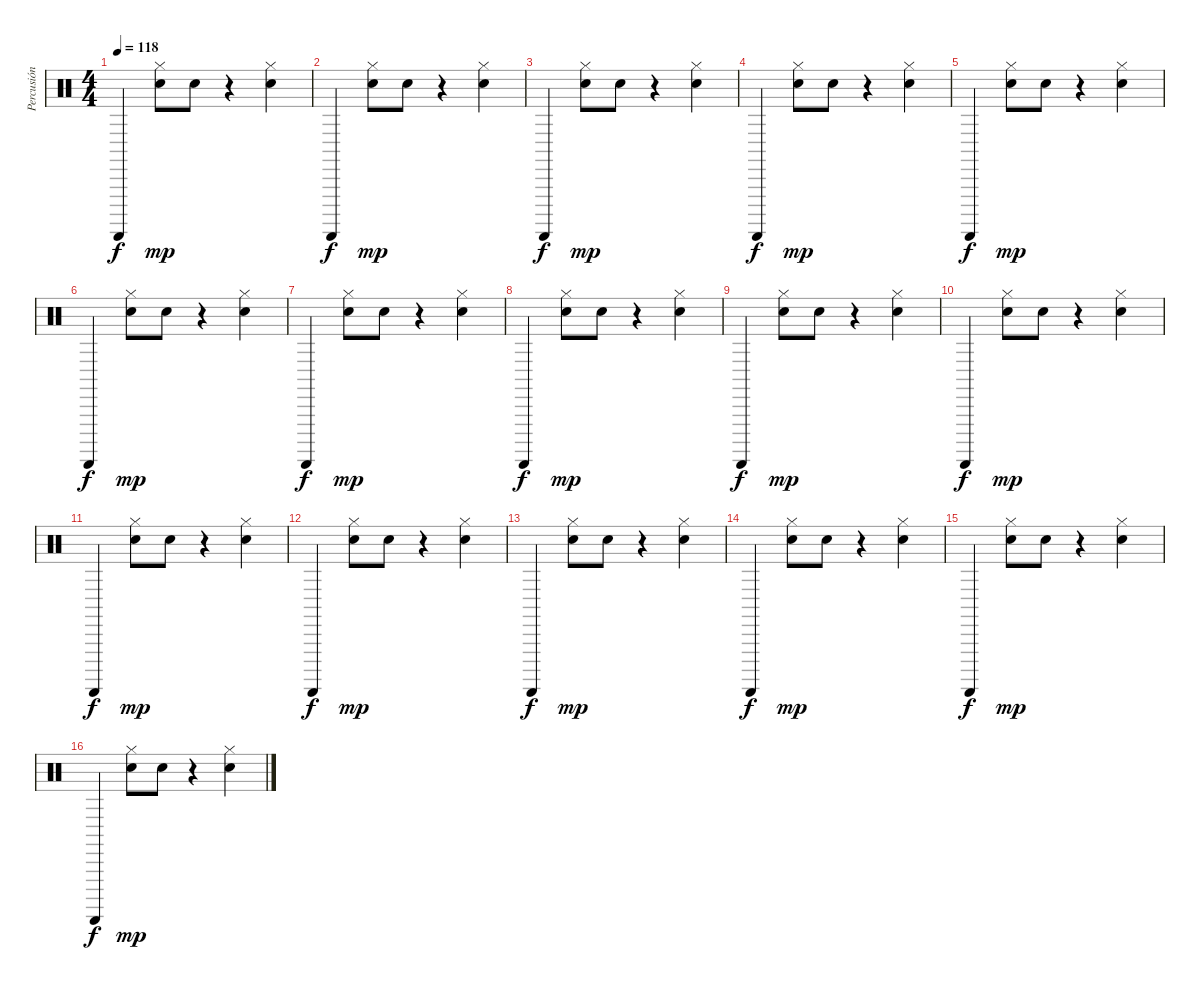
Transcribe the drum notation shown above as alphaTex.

\track ("Percusión" "Percusión") {instrument percussion}
\staff {score}
\articulation defaults
\ts (4 4)
\tempo 118
\clef neutral
\ks c "Guiro (scrap-return)".4{dy f}
("Snare (hit) 2" "Hi-Hat (closed)").8{dy mp} "Snare (hit) 2".8 r.4 ("Snare (hit) 2" "Hi-Hat (closed)").4 |
"Guiro (scrap-return)".4{dy f} ("Snare (hit) 2" "Hi-Hat (closed)").8{dy mp} "Snare (hit) 2".8 r.4 ("Snare (hit) 2" "Hi-Hat (closed)").4 |
"Guiro (scrap-return)".4{dy f} ("Snare (hit) 2" "Hi-Hat (closed)").8{dy mp} "Snare (hit) 2".8 r.4 ("Snare (hit) 2" "Hi-Hat (closed)").4 |
"Guiro (scrap-return)".4{dy f} ("Snare (hit) 2" "Hi-Hat (closed)").8{dy mp} "Snare (hit) 2".8 r.4 ("Snare (hit) 2" "Hi-Hat (closed)").4 |
"Guiro (scrap-return)".4{dy f} ("Snare (hit) 2" "Hi-Hat (closed)").8{dy mp} "Snare (hit) 2".8 r.4 ("Snare (hit) 2" "Hi-Hat (closed)").4 |
"Guiro (scrap-return)".4{dy f} ("Snare (hit) 2" "Hi-Hat (closed)").8{dy mp} "Snare (hit) 2".8 r.4 ("Snare (hit) 2" "Hi-Hat (closed)").4 |
"Guiro (scrap-return)".4{dy f} ("Snare (hit) 2" "Hi-Hat (closed)").8{dy mp} "Snare (hit) 2".8 r.4 ("Snare (hit) 2" "Hi-Hat (closed)").4 |
"Guiro (scrap-return)".4{dy f} ("Snare (hit) 2" "Hi-Hat (closed)").8{dy mp} "Snare (hit) 2".8 r.4 ("Snare (hit) 2" "Hi-Hat (closed)").4 |
"Guiro (scrap-return)".4{dy f} ("Snare (hit) 2" "Hi-Hat (closed)").8{dy mp} "Snare (hit) 2".8 r.4 ("Snare (hit) 2" "Hi-Hat (closed)").4 |
"Guiro (scrap-return)".4{dy f} ("Snare (hit) 2" "Hi-Hat (closed)").8{dy mp} "Snare (hit) 2".8 r.4 ("Snare (hit) 2" "Hi-Hat (closed)").4 |
"Guiro (scrap-return)".4{dy f} ("Snare (hit) 2" "Hi-Hat (closed)").8{dy mp} "Snare (hit) 2".8 r.4 ("Snare (hit) 2" "Hi-Hat (closed)").4 |
"Guiro (scrap-return)".4{dy f} ("Snare (hit) 2" "Hi-Hat (closed)").8{dy mp} "Snare (hit) 2".8 r.4 ("Snare (hit) 2" "Hi-Hat (closed)").4 |
"Guiro (scrap-return)".4{dy f} ("Snare (hit) 2" "Hi-Hat (closed)").8{dy mp} "Snare (hit) 2".8 r.4 ("Snare (hit) 2" "Hi-Hat (closed)").4 |
"Guiro (scrap-return)".4{dy f} ("Snare (hit) 2" "Hi-Hat (closed)").8{dy mp} "Snare (hit) 2".8 r.4 ("Snare (hit) 2" "Hi-Hat (closed)").4 |
"Guiro (scrap-return)".4{dy f} ("Snare (hit) 2" "Hi-Hat (closed)").8{dy mp} "Snare (hit) 2".8 r.4 ("Snare (hit) 2" "Hi-Hat (closed)").4 |
"Guiro (scrap-return)".4{dy f} ("Snare (hit) 2" "Hi-Hat (closed)").8{dy mp} "Snare (hit) 2".8 r.4 ("Snare (hit) 2" "Hi-Hat (closed)").4
